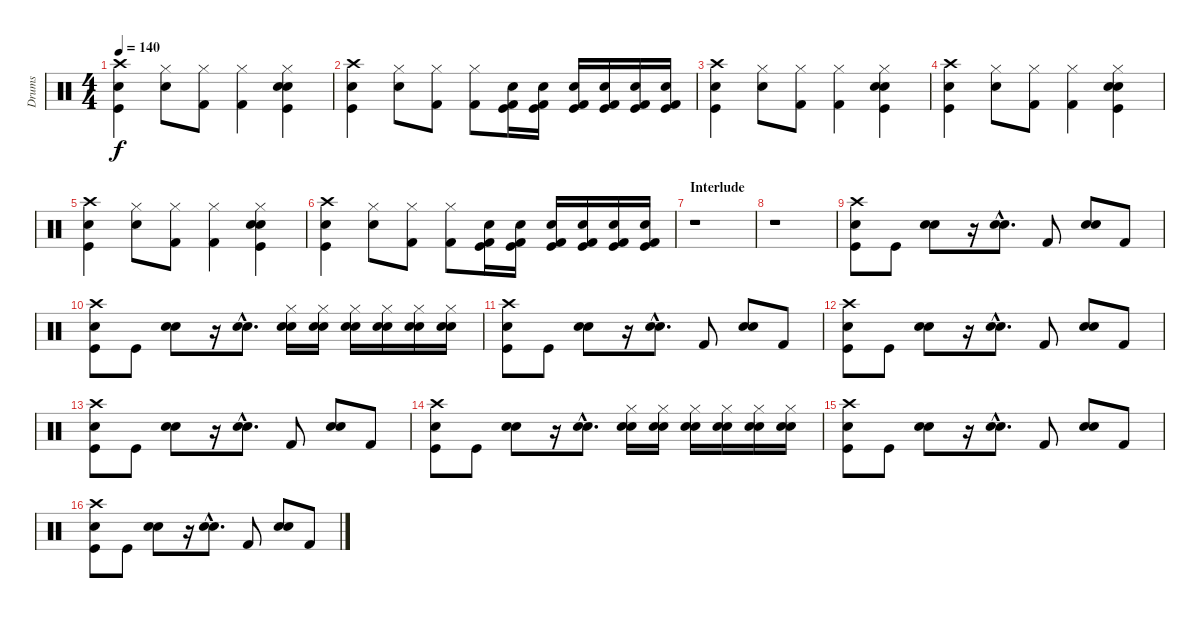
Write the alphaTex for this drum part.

\track ("Drums" "Drums") {instrument percussion}
\staff {score}
\articulation defaults
\ts (4 4)
\tempo 140
\clef neutral
\ks c
("Crash high (hit)" "Snare (hit) 2" "Kick (hit)").4{dy f} ("Hi-Hat (closed)" "Snare (hit) 2").8 ("Hi-Hat (closed)" "Kick (hit) 2").8 ("Hi-Hat (closed)" "Kick (hit) 2").4 ("Electric Snare (hit)" "Hi-Hat (closed)" "Snare (hit) 2" "Kick (hit)").4 |
("Crash high (hit)" "Snare (hit) 2" "Kick (hit)").4 ("Hi-Hat (closed)" "Snare (hit) 2").8 ("Hi-Hat (closed)" "Kick (hit) 2").8 ("Hi-Hat (closed)" "Kick (hit) 2").8 ("Electric Snare (hit)" "Kick (hit) 2" "Kick (hit)").16 ("Electric Snare (hit)" "Kick (hit) 2" "Kick (hit)").16 ("Electric Snare (hit)" "Kick (hit) 2" "Kick (hit)").16 ("Electric Snare (hit)" "Kick (hit) 2" "Kick (hit)").16 ("Electric Snare (hit)" "Kick (hit) 2" "Kick (hit)").16 ("Electric Snare (hit)" "Kick (hit) 2" "Kick (hit)").16 |
("Crash high (hit)" "Snare (hit) 2" "Kick (hit)").4 ("Hi-Hat (closed)" "Snare (hit) 2").8 ("Hi-Hat (closed)" "Kick (hit) 2").8 ("Hi-Hat (closed)" "Kick (hit) 2").4 ("Electric Snare (hit)" "Hi-Hat (closed)" "Snare (hit) 2" "Kick (hit)").4 |
("Crash high (hit)" "Snare (hit) 2" "Kick (hit)").4 ("Hi-Hat (closed)" "Snare (hit) 2").8 ("Hi-Hat (closed)" "Kick (hit) 2").8 ("Hi-Hat (closed)" "Kick (hit) 2").4 ("Electric Snare (hit)" "Hi-Hat (closed)" "Snare (hit) 2" "Kick (hit)").4 |
("Crash high (hit)" "Snare (hit) 2" "Kick (hit)").4 ("Hi-Hat (closed)" "Snare (hit) 2").8 ("Hi-Hat (closed)" "Kick (hit) 2").8 ("Hi-Hat (closed)" "Kick (hit) 2").4 ("Electric Snare (hit)" "Hi-Hat (closed)" "Snare (hit) 2" "Kick (hit)").4 |
("Crash high (hit)" "Snare (hit) 2" "Kick (hit)").4 ("Hi-Hat (closed)" "Snare (hit) 2").8 ("Hi-Hat (closed)" "Kick (hit) 2").8 ("Hi-Hat (closed)" "Kick (hit) 2").8 ("Electric Snare (hit)" "Kick (hit) 2" "Kick (hit)").16 ("Electric Snare (hit)" "Kick (hit) 2" "Kick (hit)").16 ("Electric Snare (hit)" "Kick (hit) 2" "Kick (hit)").16 ("Electric Snare (hit)" "Kick (hit) 2" "Kick (hit)").16 ("Electric Snare (hit)" "Kick (hit) 2" "Kick (hit)").16 ("Electric Snare (hit)" "Kick (hit) 2" "Kick (hit)").16 |
\section ("" "Interlude")
r.1 |
r.1 |
("Crash high (hit)" "Electric Snare (hit)" "Kick (hit)").8 "Kick (hit)".8 ("Electric Snare (hit)" "Snare (hit) 2").8 r.16 ("Electric Snare (hit)"{hac} "Snare (hit) 2"{hac}).8{d} "Kick (hit) 2".8 ("Electric Snare (hit)" "Snare (hit) 2").8 "Kick (hit) 2".8 |
("Crash high (hit)" "Electric Snare (hit)" "Kick (hit)").8 "Kick (hit)".8 ("Electric Snare (hit)" "Snare (hit) 2").8 r.16 ("Electric Snare (hit)"{hac} "Snare (hit) 2"{hac}).8{d} ("Hi-Hat (closed)" "Electric Snare (hit)" "Snare (hit) 2").16 ("Hi-Hat (closed)" "Electric Snare (hit)" "Snare (hit) 2").16 ("Hi-Hat (closed)" "Electric Snare (hit)" "Snare (hit) 2").16 ("Hi-Hat (closed)" "Electric Snare (hit)" "Snare (hit) 2").16 ("Hi-Hat (closed)" "Electric Snare (hit)" "Snare (hit) 2").16 ("Hi-Hat (closed)" "Electric Snare (hit)" "Snare (hit) 2").16 |
("Crash high (hit)" "Electric Snare (hit)" "Kick (hit)").8 "Kick (hit)".8 ("Electric Snare (hit)" "Snare (hit) 2").8 r.16 ("Electric Snare (hit)"{hac} "Snare (hit) 2"{hac}).8{d} "Kick (hit) 2".8 ("Electric Snare (hit)" "Snare (hit) 2").8 "Kick (hit) 2".8 |
("Crash high (hit)" "Electric Snare (hit)" "Kick (hit)").8 "Kick (hit)".8 ("Electric Snare (hit)" "Snare (hit) 2").8 r.16 ("Electric Snare (hit)"{hac} "Snare (hit) 2"{hac}).8{d} "Kick (hit) 2".8 ("Electric Snare (hit)" "Snare (hit) 2").8 "Kick (hit) 2".8 |
("Crash high (hit)" "Electric Snare (hit)" "Kick (hit)").8 "Kick (hit)".8 ("Electric Snare (hit)" "Snare (hit) 2").8 r.16 ("Electric Snare (hit)"{hac} "Snare (hit) 2"{hac}).8{d} "Kick (hit) 2".8 ("Electric Snare (hit)" "Snare (hit) 2").8 "Kick (hit) 2".8 |
("Crash high (hit)" "Electric Snare (hit)" "Kick (hit)").8 "Kick (hit)".8 ("Electric Snare (hit)" "Snare (hit) 2").8 r.16 ("Electric Snare (hit)"{hac} "Snare (hit) 2"{hac}).8{d} ("Hi-Hat (closed)" "Electric Snare (hit)" "Snare (hit) 2").16 ("Hi-Hat (closed)" "Electric Snare (hit)" "Snare (hit) 2").16 ("Hi-Hat (closed)" "Electric Snare (hit)" "Snare (hit) 2").16 ("Hi-Hat (closed)" "Electric Snare (hit)" "Snare (hit) 2").16 ("Hi-Hat (closed)" "Electric Snare (hit)" "Snare (hit) 2").16 ("Hi-Hat (closed)" "Electric Snare (hit)" "Snare (hit) 2").16 |
("Crash high (hit)" "Electric Snare (hit)" "Kick (hit)").8 "Kick (hit)".8 ("Electric Snare (hit)" "Snare (hit) 2").8 r.16 ("Electric Snare (hit)"{hac} "Snare (hit) 2"{hac}).8{d} "Kick (hit) 2".8 ("Electric Snare (hit)" "Snare (hit) 2").8 "Kick (hit) 2".8 |
("Crash high (hit)" "Electric Snare (hit)" "Kick (hit)").8 "Kick (hit)".8 ("Electric Snare (hit)" "Snare (hit) 2").8 r.16 ("Electric Snare (hit)"{hac} "Snare (hit) 2"{hac}).8{d} "Kick (hit) 2".8 ("Electric Snare (hit)" "Snare (hit) 2").8 "Kick (hit) 2".8
